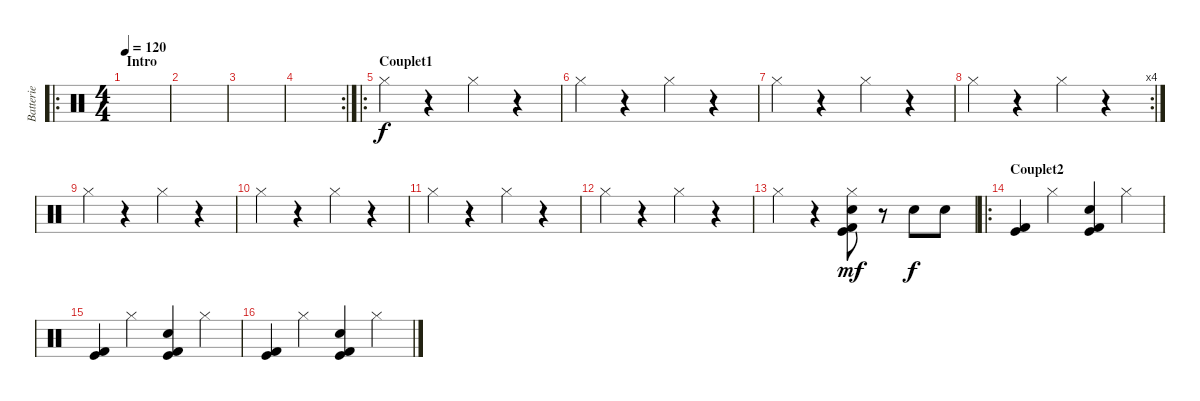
\track ("Batterie" "Batterie") {instrument percussion}
\staff {score}
\articulation defaults
\ro
\ts (4 4)
\section ("" "Intro")
\tempo 120
\clef neutral
\ks c
|
|
|
\rc 2
|
\ro
\section ("" "Couplet1")
"Hi-Hat (closed)".4 r.4 "Hi-Hat (closed)".4 r.4 |
"Hi-Hat (closed)".4 r.4 "Hi-Hat (closed)".4 r.4 |
"Hi-Hat (closed)".4 r.4 "Hi-Hat (closed)".4 r.4 |
\rc 4 "Hi-Hat (closed)".4
r.4 "Hi-Hat (closed)".4 r.4 |
"Hi-Hat (closed)".4 r.4 "Hi-Hat (closed)".4 r.4 |
"Hi-Hat (closed)".4 r.4 "Hi-Hat (closed)".4 r.4 |
"Hi-Hat (closed)".4 r.4 "Hi-Hat (closed)".4 r.4 |
"Hi-Hat (closed)".4 r.4 "Hi-Hat (closed)".4 r.4 |
"Hi-Hat (closed)".4 r.4 ("Hi-Hat (closed)" "Electric Snare (hit)" "Kick (hit) 2" "Kick (hit)").8{dy mf} r.8 "Electric Snare (hit)".8{dy f} "Electric Snare (hit)".8 |
\ro
\section ("" "Couplet2")
("Kick (hit) 2" "Kick (hit)").4 "Hi-Hat (closed)".4 ("Electric Snare (hit)" "Kick (hit) 2" "Kick (hit)").4 "Hi-Hat (closed)".4 |
("Kick (hit) 2" "Kick (hit)").4 "Hi-Hat (closed)".4 ("Electric Snare (hit)" "Kick (hit) 2" "Kick (hit)").4 "Hi-Hat (closed)".4 |
("Kick (hit) 2" "Kick (hit)").4 "Hi-Hat (closed)".4 ("Electric Snare (hit)" "Kick (hit) 2" "Kick (hit)").4 "Hi-Hat (closed)".4
